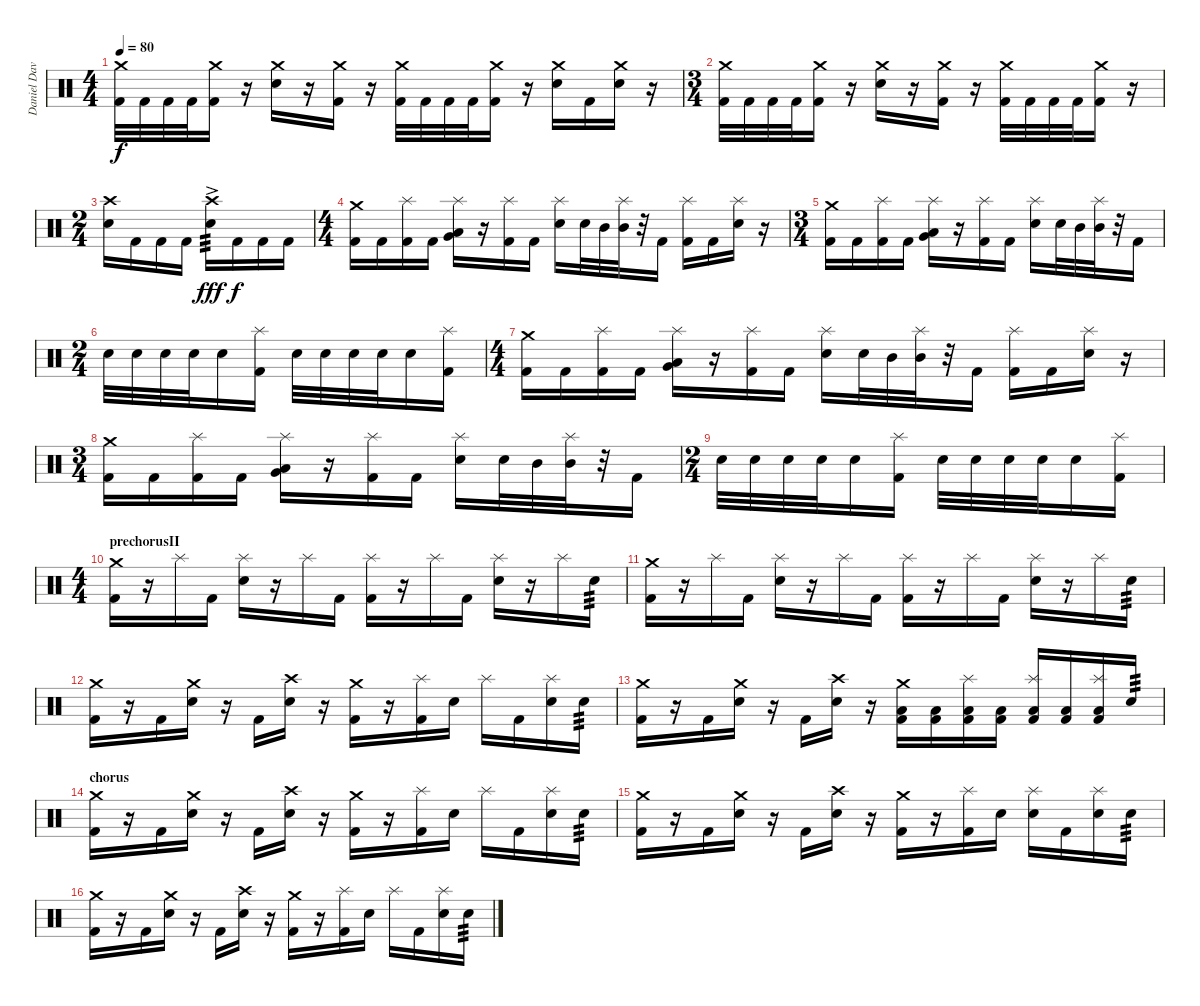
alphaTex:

\track ("Daniel Davison" "Daniel Dav") {instrument percussion}
\staff {score}
\articulation defaults
\ts (4 4)
\tempo 80
\clef neutral
\ks c
("Crash medium (hit)" "Kick (hit) 2").32{dy f} "Kick (hit) 2".32 "Kick (hit) 2".32 "Kick (hit) 2".32 ("Crash medium (hit)" "Kick (hit) 2").16 r.16 ("Crash medium (hit)" "Electric Snare (hit)").16 r.16 ("Crash medium (hit)" "Kick (hit) 2").16 r.16 ("Crash medium (hit)" "Kick (hit) 2").32 "Kick (hit) 2".32 "Kick (hit) 2".32 "Kick (hit) 2".32 ("Crash medium (hit)" "Kick (hit) 2").16 r.16 ("Crash medium (hit)" "Electric Snare (hit)").16 "Kick (hit) 2".16 ("Crash medium (hit)" "Electric Snare (hit)").16 r.16 |
\ts (3 4)
("Crash medium (hit)" "Kick (hit) 2").32 "Kick (hit) 2".32 "Kick (hit) 2".32 "Kick (hit) 2".32 ("Crash medium (hit)" "Kick (hit) 2").16 r.16 ("Crash medium (hit)" "Electric Snare (hit)").16 r.16 ("Crash medium (hit)" "Kick (hit) 2").16 r.16 ("Crash medium (hit)" "Kick (hit) 2").32 "Kick (hit) 2".32 "Kick (hit) 2".32 "Kick (hit) 2".32 ("Crash medium (hit)" "Kick (hit) 2").16 r.16 |
\ts (2 4)
("Crash high (hit)" "Electric Snare (hit)").16 "Kick (hit) 2".16 "Kick (hit) 2".16 "Kick (hit) 2".16 ("Crash high (hit)" "Electric Snare (hit)"{ac}).16{tp 3 dy fff} "Kick (hit) 2".16{dy f} "Kick (hit) 2".16 "Kick (hit) 2".16 |
\ts (4 4)
("Crash medium (hit)" "Kick (hit) 2").16 "Kick (hit) 2".16 ("Splash (hit)" "Kick (hit) 2").16 "Kick (hit) 2".16 ("Splash (hit)" "Very Low Tom (hit)" "Low Tom (hit)").16 r.16 ("Splash (hit)" "Kick (hit) 2").16 "Kick (hit) 2".16 ("Splash (hit)" "Electric Snare (hit)").16 "Electric Snare (hit)".32 "Mid Tom (hit)".32 ("Splash (hit)" "Mid Tom (hit)").32 r.32 "Kick (hit) 2".16 ("Splash (hit)" "Kick (hit) 2").16 "Kick (hit) 2".16 ("Splash (hit)" "Electric Snare (hit)").16 r.16 |
\ts (3 4)
("Crash medium (hit)" "Kick (hit) 2").16 "Kick (hit) 2".16 ("Splash (hit)" "Kick (hit) 2").16 "Kick (hit) 2".16 ("Splash (hit)" "Very Low Tom (hit)" "Low Tom (hit)").16 r.16 ("Splash (hit)" "Kick (hit) 2").16 "Kick (hit) 2".16 ("Splash (hit)" "Electric Snare (hit)").16 "Electric Snare (hit)".32 "Mid Tom (hit)".32 ("Splash (hit)" "Mid Tom (hit)").32 r.32 "Kick (hit) 2".16 |
\ts (2 4)
"Electric Snare (hit)".32 "Electric Snare (hit)".32 "Electric Snare (hit)".32 "Electric Snare (hit)".32 "Electric Snare (hit)".16 ("Splash (hit)" "Kick (hit) 2").16 "Electric Snare (hit)".32 "Electric Snare (hit)".32 "Electric Snare (hit)".32 "Electric Snare (hit)".32 "Electric Snare (hit)".16 ("Splash (hit)" "Kick (hit) 2").16 |
\ts (4 4)
("Crash medium (hit)" "Kick (hit) 2").16 "Kick (hit) 2".16 ("Splash (hit)" "Kick (hit) 2").16 "Kick (hit) 2".16 ("Splash (hit)" "Very Low Tom (hit)" "Low Tom (hit)").16 r.16 ("Splash (hit)" "Kick (hit) 2").16 "Kick (hit) 2".16 ("Splash (hit)" "Electric Snare (hit)").16 "Electric Snare (hit)".32 "Mid Tom (hit)".32 ("Splash (hit)" "Mid Tom (hit)").32 r.32 "Kick (hit) 2".16 ("Splash (hit)" "Kick (hit) 2").16 "Kick (hit) 2".16 ("Splash (hit)" "Electric Snare (hit)").16 r.16 |
\ts (3 4)
("Crash medium (hit)" "Kick (hit) 2").16 "Kick (hit) 2".16 ("Splash (hit)" "Kick (hit) 2").16 "Kick (hit) 2".16 ("Splash (hit)" "Very Low Tom (hit)" "Low Tom (hit)").16 r.16 ("Splash (hit)" "Kick (hit) 2").16 "Kick (hit) 2".16 ("Splash (hit)" "Electric Snare (hit)").16 "Electric Snare (hit)".32 "Mid Tom (hit)".32 ("Splash (hit)" "Mid Tom (hit)").32 r.32 "Kick (hit) 2".16 |
\ts (2 4)
"Electric Snare (hit)".32 "Electric Snare (hit)".32 "Electric Snare (hit)".32 "Electric Snare (hit)".32 "Electric Snare (hit)".16 ("Splash (hit)" "Kick (hit) 2").16 "Electric Snare (hit)".32 "Electric Snare (hit)".32 "Electric Snare (hit)".32 "Electric Snare (hit)".32 "Electric Snare (hit)".16 ("Splash (hit)" "Kick (hit) 2").16 |
\ts (4 4)
\section ("" "prechorusII")
("Crash medium (hit)" "Kick (hit) 2").16 r.16 "Splash (hit)".16 "Kick (hit) 2".16 ("Splash (hit)" "Electric Snare (hit)").16 r.16 "Splash (hit)".16 "Kick (hit) 2".16 ("Splash (hit)" "Kick (hit) 2").16 r.16 "Splash (hit)".16 "Kick (hit) 2".16 ("Splash (hit)" "Electric Snare (hit)").16 r.16 "Splash (hit)".16 "Electric Snare (hit)".16{tp 3} |
("Crash medium (hit)" "Kick (hit) 2").16 r.16 "Splash (hit)".16 "Kick (hit) 2".16 ("Splash (hit)" "Electric Snare (hit)").16 r.16 "Splash (hit)".16 "Kick (hit) 2".16 ("Splash (hit)" "Kick (hit) 2").16 r.16 "Splash (hit)".16 "Kick (hit) 2".16 ("Splash (hit)" "Electric Snare (hit)").16 r.16 "Splash (hit)".16 "Electric Snare (hit)".16{tp 3} |
("Crash medium (hit)" "Kick (hit) 2").16 r.16 "Kick (hit) 2".16 ("Crash medium (hit)" "Electric Snare (hit)").16 r.16 "Kick (hit) 2".16 ("Crash high (hit)" "Electric Snare (hit)").16 r.16 ("Crash medium (hit)" "Kick (hit) 2").16 r.16 ("Splash (hit)" "Kick (hit) 2").16 "Electric Snare (hit)".16 "Splash (hit)".16 "Kick (hit) 2".16 ("Splash (hit)" "Electric Snare (hit)").16 "Electric Snare (hit)".16{tp 3} |
("Crash medium (hit)" "Kick (hit) 2").16 r.16 "Kick (hit) 2".16 ("Crash medium (hit)" "Electric Snare (hit)").16 r.16 "Kick (hit) 2".16 ("Crash high (hit)" "Electric Snare (hit)").16 r.16 ("Crash medium (hit)" "Low Tom (hit)" "Kick (hit) 2").16 ("Low Tom (hit)" "Kick (hit) 2").16 ("Splash (hit)" "Low Tom (hit)" "Kick (hit) 2").16 ("Low Tom (hit)" "Kick (hit) 2").16 ("Splash (hit)" "Low Tom (hit)" "Kick (hit) 2").16 ("Low Tom (hit)" "Kick (hit) 2").16 ("Splash (hit)" "Low Tom (hit)" "Kick (hit) 2").16 "Electric Snare (hit)".16{tp 3} |
\section ("" "chorus")
("Crash medium (hit)" "Kick (hit) 2").16 r.16 "Kick (hit) 2".16 ("Crash medium (hit)" "Electric Snare (hit)").16 r.16 "Kick (hit) 2".16 ("Crash high (hit)" "Electric Snare (hit)").16 r.16 ("Crash medium (hit)" "Kick (hit) 2").16 r.16 ("Splash (hit)" "Kick (hit) 2").16 "Electric Snare (hit)".16 "Splash (hit)".16 "Kick (hit) 2".16 ("Splash (hit)" "Electric Snare (hit)").16 "Electric Snare (hit)".16{tp 3} |
("Crash medium (hit)" "Kick (hit) 2").16 r.16 "Kick (hit) 2".16 ("Crash medium (hit)" "Electric Snare (hit)").16 r.16 "Kick (hit) 2".16 ("Crash high (hit)" "Electric Snare (hit)").16 r.16 ("Crash medium (hit)" "Kick (hit) 2").16 r.16 ("Splash (hit)" "Kick (hit) 2").16 "Electric Snare (hit)".16 ("Splash (hit)" "Electric Snare (hit)").16 "Kick (hit) 2".16 ("Splash (hit)" "Electric Snare (hit)").16 "Electric Snare (hit)".16{tp 3} |
("Crash medium (hit)" "Kick (hit) 2").16 r.16 "Kick (hit) 2".16 ("Crash medium (hit)" "Electric Snare (hit)").16 r.16 "Kick (hit) 2".16 ("Crash high (hit)" "Electric Snare (hit)").16 r.16 ("Crash medium (hit)" "Kick (hit) 2").16 r.16 ("Splash (hit)" "Kick (hit) 2").16 "Electric Snare (hit)".16 "Splash (hit)".16 "Kick (hit) 2".16 ("Splash (hit)" "Electric Snare (hit)").16 "Electric Snare (hit)".16{tp 3}
